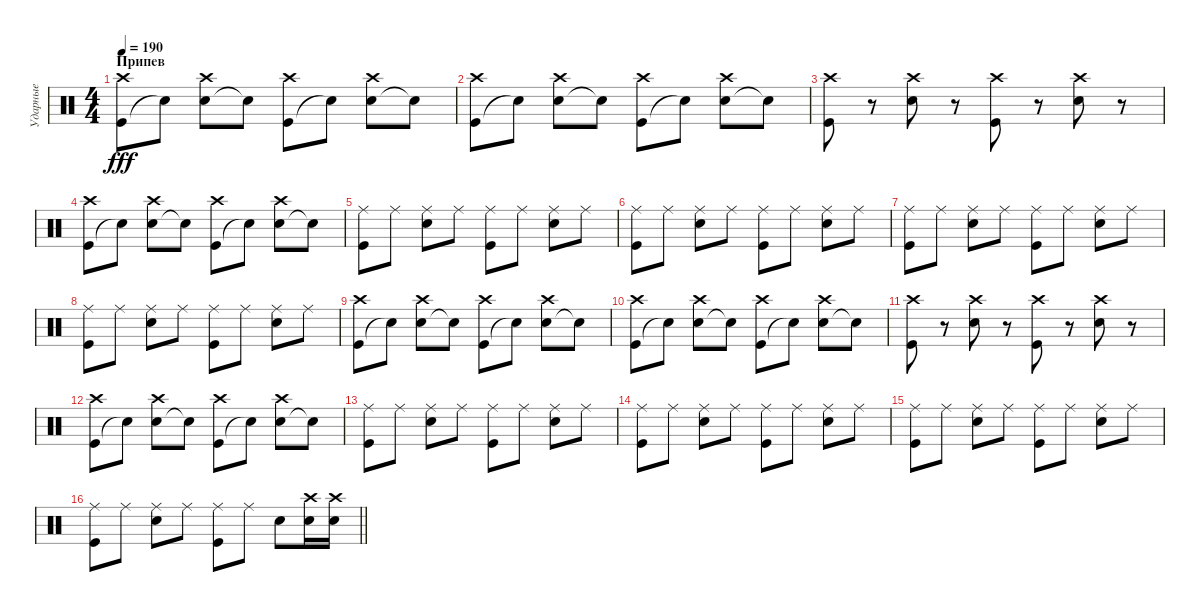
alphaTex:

\track ("Ударные" "Ударные") {instrument percussion}
\staff {score}
\articulation defaults
\ts (4 4)
\section ("" "Припев")
\tempo 190
\clef neutral
\ks c
("Kick (hit)" "Crash high (hit)").8{dy fff} "Snare (hit)"{t}.8 ("Electric Snare (hit)" "Crash high (hit)").8 "Snare (hit)"{t}.8 ("Kick (hit)" "Crash high (hit)").8 "Snare (hit)"{t}.8 ("Electric Snare (hit)" "Crash high (hit)").8 "Snare (hit)"{t}.8 |
("Kick (hit)" "Crash high (hit)").8 "Snare (hit)"{t}.8 ("Electric Snare (hit)" "Crash high (hit)").8 "Snare (hit)"{t}.8 ("Kick (hit)" "Crash high (hit)").8 "Snare (hit)"{t}.8 ("Electric Snare (hit)" "Crash high (hit)").8 "Snare (hit)"{t}.8 |
("Kick (hit)" "Crash high (hit)").8 r.8 ("Electric Snare (hit)" "Crash high (hit)").8 r.8 ("Kick (hit)" "Crash high (hit)").8 r.8 ("Electric Snare (hit)" "Crash high (hit)").8 r.8 |
("Kick (hit)" "Crash high (hit)").8 "Snare (hit)"{t}.8 ("Electric Snare (hit)" "Crash high (hit)").8 "Snare (hit)"{t}.8 ("Kick (hit)" "Crash high (hit)").8 "Snare (hit)"{t}.8 ("Electric Snare (hit)" "Crash high (hit)").8 "Snare (hit)"{t}.8 |
("Kick (hit)" "Ride (middle)").8 "Ride (middle)".8 ("Electric Snare (hit)" "Ride (middle)").8 "Ride (middle)".8 ("Kick (hit)" "Ride (middle)").8 "Ride (middle)".8 ("Electric Snare (hit)" "Ride (middle)").8 "Ride (middle)".8 |
("Kick (hit)" "Ride (middle)").8 "Ride (middle)".8 ("Electric Snare (hit)" "Ride (middle)").8 "Ride (middle)".8 ("Kick (hit)" "Ride (middle)").8 "Ride (middle)".8 ("Electric Snare (hit)" "Ride (middle)").8 "Ride (middle)".8 |
("Kick (hit)" "Ride (middle)").8 "Ride (middle)".8 ("Electric Snare (hit)" "Ride (middle)").8 "Ride (middle)".8 ("Kick (hit)" "Ride (middle)").8 "Ride (middle)".8 ("Electric Snare (hit)" "Ride (middle)").8 "Ride (middle)".8 |
("Kick (hit)" "Ride (middle)").8 "Ride (middle)".8 ("Electric Snare (hit)" "Ride (middle)").8 "Ride (middle)".8 ("Kick (hit)" "Ride (middle)").8 "Ride (middle)".8 ("Electric Snare (hit)" "Ride (middle)").8 "Ride (middle)".8 |
("Kick (hit)" "Crash high (hit)").8 "Snare (hit)"{t}.8 ("Electric Snare (hit)" "Crash high (hit)").8 "Snare (hit)"{t}.8 ("Kick (hit)" "Crash high (hit)").8 "Snare (hit)"{t}.8 ("Electric Snare (hit)" "Crash high (hit)").8 "Snare (hit)"{t}.8 |
("Kick (hit)" "Crash high (hit)").8 "Snare (hit)"{t}.8 ("Electric Snare (hit)" "Crash high (hit)").8 "Snare (hit)"{t}.8 ("Kick (hit)" "Crash high (hit)").8 "Snare (hit)"{t}.8 ("Electric Snare (hit)" "Crash high (hit)").8 "Snare (hit)"{t}.8 |
("Kick (hit)" "Crash high (hit)").8 r.8 ("Electric Snare (hit)" "Crash high (hit)").8 r.8 ("Kick (hit)" "Crash high (hit)").8 r.8 ("Electric Snare (hit)" "Crash high (hit)").8 r.8 |
("Kick (hit)" "Crash high (hit)").8 "Snare (hit)"{t}.8 ("Electric Snare (hit)" "Crash high (hit)").8 "Snare (hit)"{t}.8 ("Kick (hit)" "Crash high (hit)").8 "Snare (hit)"{t}.8 ("Electric Snare (hit)" "Crash high (hit)").8 "Snare (hit)"{t}.8 |
("Kick (hit)" "Ride (middle)").8 "Ride (middle)".8 ("Electric Snare (hit)" "Ride (middle)").8 "Ride (middle)".8 ("Kick (hit)" "Ride (middle)").8 "Ride (middle)".8 ("Electric Snare (hit)" "Ride (middle)").8 "Ride (middle)".8 |
("Kick (hit)" "Ride (middle)").8 "Ride (middle)".8 ("Electric Snare (hit)" "Ride (middle)").8 "Ride (middle)".8 ("Kick (hit)" "Ride (middle)").8 "Ride (middle)".8 ("Electric Snare (hit)" "Ride (middle)").8 "Ride (middle)".8 |
("Kick (hit)" "Ride (middle)").8 "Ride (middle)".8 ("Electric Snare (hit)" "Ride (middle)").8 "Ride (middle)".8 ("Kick (hit)" "Ride (middle)").8 "Ride (middle)".8 ("Electric Snare (hit)" "Ride (middle)").8 "Ride (middle)".8 |
\barLineRight lightlight
("Kick (hit)" "Ride (middle)").8 "Ride (middle)".8 ("Electric Snare (hit)" "Ride (middle)").8 "Ride (middle)".8 ("Kick (hit)" "Ride (middle)").8 "Ride (middle)".8 "Electric Snare (hit)".8 ("Electric Snare (hit)" "Crash high (hit)").16 ("Electric Snare (hit)" "Crash high (hit)").16
